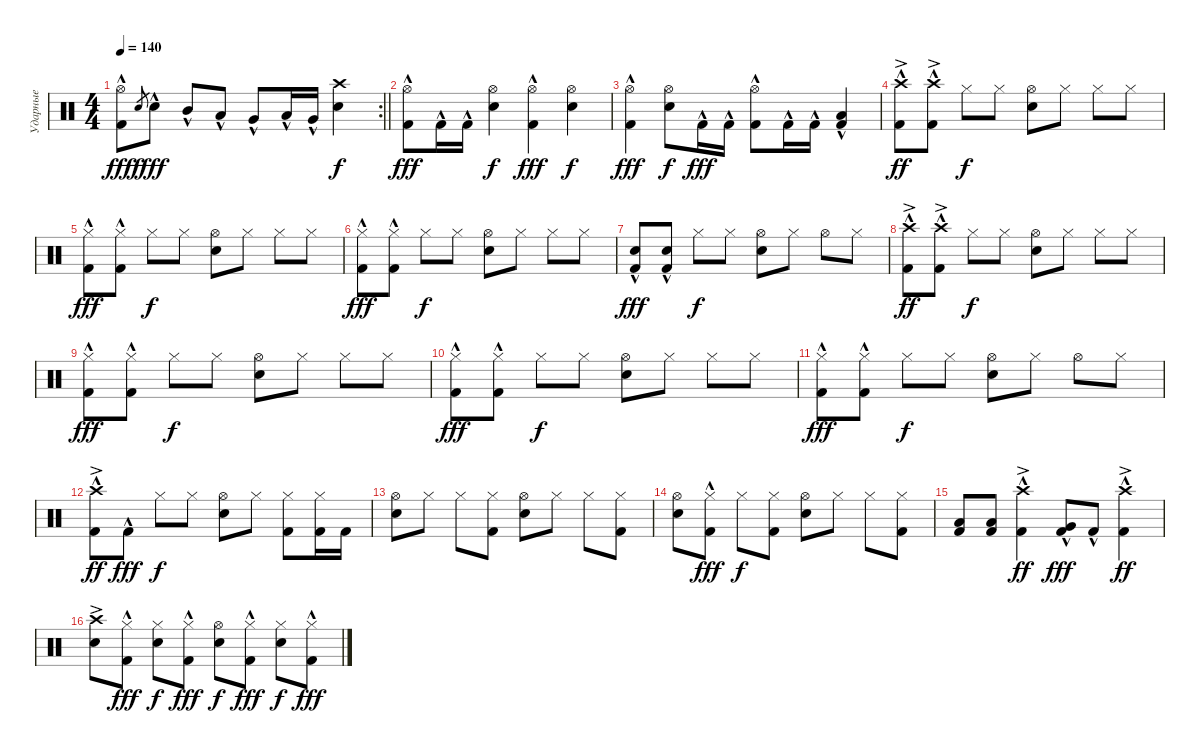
\track ("Ударные" "Ударные") {instrument percussion}
\staff {score}
\articulation defaults
\rc 2
\ts (4 4)
\tempo 140
\clef neutral
\barLineRight lightlight
\ks c
("Kick (hit) 2"{hac} "Hi-Hat (open)").8{dy fff} "Electric Snare (hit)".8{gr dy f} "Electric Snare (hit)"{hac}.8{dy fff} "Mid Tom (hit)"{hac}.8 "Low Tom (hit)"{hac}.8 "Very Low Tom (hit)"{hac}.8 "Low Tom (hit)"{hac}.16 "Very Low Tom (hit)"{hac}.16 ("Snare (hit) 2" "Crash high (hit)").4{dy f} |
("Kick (hit) 2"{hac} "Hi-Hat (open)").8{dy fff} "Kick (hit) 2"{hac}.16 "Kick (hit) 2"{hac}.16 ("Snare (hit) 2" "Hi-Hat (open)").4{dy f} ("Kick (hit) 2"{hac} "Hi-Hat (open)").4{dy fff} ("Snare (hit) 2" "Hi-Hat (open)").4{dy f} |
("Kick (hit) 2"{hac} "Hi-Hat (open)").4{dy fff} ("Snare (hit) 2" "Hi-Hat (open)").8{dy f} "Kick (hit) 2"{hac}.16{dy fff} "Kick (hit) 2"{hac}.16 ("Kick (hit) 2"{hac} "Hi-Hat (open)").8 "Kick (hit) 2"{hac}.16 "Kick (hit) 2"{hac}.16 ("Kick (hit) 2"{hac} "Low Floor Tom (hit)"{hac}).4 |
("Kick (hit) 2"{hac} "Crash high (hit)"{ac}).8{dy ff} ("Kick (hit) 2"{hac} "Crash high (hit)"{ac}).8 "Hi-Hat (closed)".8{dy f} "Hi-Hat (closed)".8 ("Snare (hit) 2" "Hi-Hat (open)").8 "Hi-Hat (closed)".8 "Hi-Hat (closed)".8 "Hi-Hat (closed)".8 |
("Kick (hit) 2"{hac} "Hi-Hat (closed)").8{dy fff} ("Kick (hit) 2"{hac} "Hi-Hat (closed)").8 "Hi-Hat (closed)".8{dy f} "Hi-Hat (closed)".8 ("Snare (hit) 2" "Hi-Hat (open)").8 "Hi-Hat (closed)".8 "Hi-Hat (closed)".8 "Hi-Hat (closed)".8 |
("Kick (hit) 2"{hac} "Hi-Hat (closed)").8{dy fff} ("Kick (hit) 2"{hac} "Hi-Hat (closed)").8 "Hi-Hat (closed)".8{dy f} "Hi-Hat (closed)".8 ("Snare (hit) 2" "Hi-Hat (open)").8 "Hi-Hat (closed)".8 "Hi-Hat (closed)".8 "Hi-Hat (closed)".8 |
("Kick (hit) 2"{hac} "Electric Snare (hit)"{hac}).8{dy fff} ("Kick (hit) 2"{hac} "Electric Snare (hit)"{hac}).8 "Hi-Hat (closed)".8{dy f} "Hi-Hat (closed)".8 ("Snare (hit) 2" "Hi-Hat (open)").8 "Hi-Hat (closed)".8 "Hi-Hat (open)".8 "Hi-Hat (closed)".8 |
("Kick (hit) 2"{hac} "Crash high (hit)"{ac}).8{dy ff} ("Kick (hit) 2"{hac} "Crash high (hit)"{ac}).8 "Hi-Hat (closed)".8{dy f} "Hi-Hat (closed)".8 ("Snare (hit) 2" "Hi-Hat (open)").8 "Hi-Hat (closed)".8 "Hi-Hat (closed)".8 "Hi-Hat (closed)".8 |
("Kick (hit) 2"{hac} "Hi-Hat (closed)").8{dy fff} ("Kick (hit) 2"{hac} "Hi-Hat (closed)").8 "Hi-Hat (closed)".8{dy f} "Hi-Hat (closed)".8 ("Snare (hit) 2" "Hi-Hat (open)").8 "Hi-Hat (closed)".8 "Hi-Hat (closed)".8 "Hi-Hat (closed)".8 |
("Kick (hit) 2"{hac} "Hi-Hat (closed)").8{dy fff} ("Kick (hit) 2"{hac} "Hi-Hat (closed)").8 "Hi-Hat (closed)".8{dy f} "Hi-Hat (closed)".8 ("Snare (hit) 2" "Hi-Hat (open)").8 "Hi-Hat (closed)".8 "Hi-Hat (closed)".8 "Hi-Hat (closed)".8 |
("Kick (hit) 2"{hac} "Hi-Hat (closed)").8{dy fff} ("Kick (hit) 2"{hac} "Hi-Hat (closed)").8 "Hi-Hat (closed)".8{dy f} "Hi-Hat (closed)".8 ("Snare (hit) 2" "Hi-Hat (open)").8 "Hi-Hat (closed)".8 "Hi-Hat (open)".8 "Hi-Hat (closed)".8 |
("Kick (hit) 2"{hac} "Crash high (hit)"{ac}).8{dy ff} "Kick (hit) 2"{hac}.8{dy fff} "Hi-Hat (closed)".8{dy f} "Hi-Hat (closed)".8 ("Snare (hit) 2" "Hi-Hat (open)").8 "Hi-Hat (closed)".8 ("Kick (hit) 2" "Hi-Hat (closed)").8 ("Kick (hit) 2" "Hi-Hat (closed)").16 "Kick (hit) 2".16 |
("Snare (hit) 2" "Hi-Hat (open)").8 "Hi-Hat (closed)".8 "Hi-Hat (closed)".8 ("Kick (hit) 2" "Hi-Hat (closed)").8 ("Snare (hit) 2" "Hi-Hat (open)").8 "Hi-Hat (closed)".8 "Hi-Hat (closed)".8 ("Kick (hit) 2" "Hi-Hat (closed)").8 |
("Snare (hit) 2" "Hi-Hat (open)").8 ("Kick (hit) 2"{hac} "Hi-Hat (closed)").8{dy fff} "Hi-Hat (closed)".8{dy f} ("Kick (hit) 2" "Hi-Hat (closed)").8 ("Snare (hit) 2" "Hi-Hat (open)").8 "Hi-Hat (closed)".8 "Hi-Hat (closed)".8 ("Kick (hit) 2" "Hi-Hat (closed)").8 |
("Kick (hit) 2" "Low Tom (hit)").8 ("Kick (hit) 2" "Low Tom (hit)").8 ("Kick (hit) 2"{hac} "Crash high (hit)"{ac}).4{dy ff} ("Kick (hit) 2" "Very Low Tom (hit)"{hac}).8{dy fff} "Kick (hit) 2"{hac}.8 ("Kick (hit) 2"{hac} "Crash high (hit)"{ac}).4{dy ff} |
("Snare (hit) 2" "Crash high (hit)"{ac}).8 ("Kick (hit) 2"{hac} "Hi-Hat (closed)").8{dy fff} ("Snare (hit) 2" "Hi-Hat (closed)").8{dy f} ("Kick (hit) 2"{hac} "Hi-Hat (closed)").8{dy fff} ("Snare (hit) 2" "Hi-Hat (open)").8{dy f} ("Kick (hit) 2"{hac} "Hi-Hat (closed)").8{dy fff} ("Snare (hit) 2" "Hi-Hat (closed)").8{dy f} ("Kick (hit) 2"{hac} "Hi-Hat (closed)").8{dy fff}
